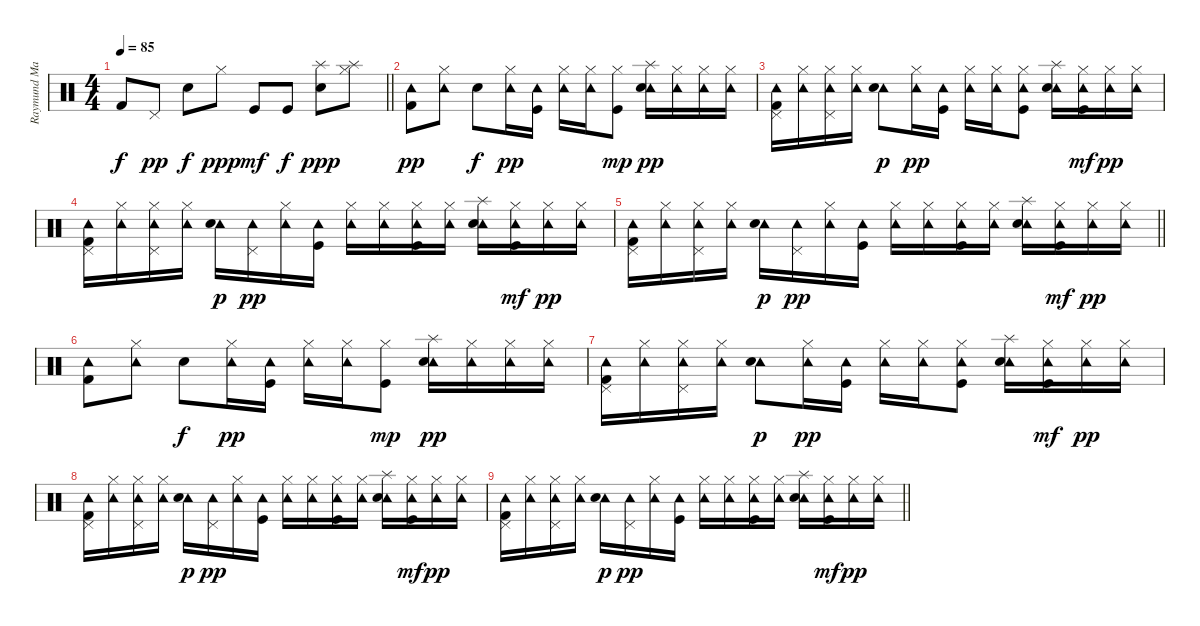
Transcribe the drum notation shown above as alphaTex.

\track ("Raymund Marasigan - Drums" "Raymund Ma") {instrument percussion}
\staff {score}
\articulation defaults
\ts (4 4)
\tempo 85
\clef neutral
\barLineRight lightlight
\ks c "Kick (hit) 2".8{dy f} "Pedal Hi-Hat (hit)".8{dy pp} "Electric Snare (hit)".8{dy f} "Hi-Hat (closed)".8{dy ppp} "Kick (hit)".8{dy mf} "Kick (hit)".8{dy f}
("Splash (hit)" "Electric Snare (hit)").8{dy ppp} ("Hi-Hat (closed)" "Splash (hit)").8 |
\section ("" "")
("Kick (hit) 2" "Tambourine (hit)").8{dy pp} ("Hi-Hat (closed)" "Tambourine (hit)").8 "Electric Snare (hit)".8{dy f} ("Hi-Hat (closed)" "Tambourine (hit)").16{dy pp} ("Kick (hit)" "Tambourine (hit)").16 ("Hi-Hat (closed)" "Tambourine (hit)").16 ("Hi-Hat (closed)" "Tambourine (hit)").16 ("Hi-Hat (closed)" "Kick (hit)").8{dy mp} ("Splash (hit)" "Tambourine (hit)" "Electric Snare (hit)").16{dy pp} ("Hi-Hat (closed)" "Tambourine (hit)").16 ("Hi-Hat (closed)" "Tambourine (hit)").16 ("Hi-Hat (closed)" "Tambourine (hit)").16 |
("Kick (hit) 2" "Pedal Hi-Hat (hit)" "Tambourine (hit)").16 ("Hi-Hat (closed)" "Tambourine (hit)").16 ("Hi-Hat (closed)" "Pedal Hi-Hat (hit)" "Tambourine (hit)").16 ("Hi-Hat (closed)" "Tambourine (hit)").16 ("Tambourine (hit)" "Electric Snare (hit)").8{dy p} ("Hi-Hat (closed)" "Tambourine (hit)").16{dy pp} ("Kick (hit)" "Tambourine (hit)").16 ("Hi-Hat (closed)" "Tambourine (hit)").16 ("Hi-Hat (closed)" "Tambourine (hit)").16 ("Hi-Hat (closed)" "Kick (hit)" "Tambourine (hit)").8 ("Splash (hit)" "Tambourine (hit)" "Electric Snare (hit)").16 ("Hi-Hat (closed)" "Tambourine (hit)" "Kick (hit)").16{dy mf} ("Hi-Hat (closed)" "Tambourine (hit)").16{dy pp} ("Hi-Hat (closed)" "Tambourine (hit)").16 |
("Kick (hit) 2" "Pedal Hi-Hat (hit)" "Tambourine (hit)").16 ("Hi-Hat (closed)" "Tambourine (hit)").16 ("Hi-Hat (closed)" "Pedal Hi-Hat (hit)" "Tambourine (hit)").16 ("Hi-Hat (closed)" "Tambourine (hit)").16 ("Tambourine (hit)" "Electric Snare (hit)").16{dy p} ("Pedal Hi-Hat (hit)" "Tambourine (hit)").16{dy pp} ("Hi-Hat (closed)" "Tambourine (hit)").16 ("Kick (hit)" "Tambourine (hit)").16 ("Hi-Hat (closed)" "Tambourine (hit)").16 ("Hi-Hat (closed)" "Tambourine (hit)").16 ("Hi-Hat (closed)" "Kick (hit)" "Tambourine (hit)").16 ("Hi-Hat (closed)" "Tambourine (hit)").16 ("Splash (hit)" "Tambourine (hit)" "Electric Snare (hit)").16 ("Hi-Hat (closed)" "Tambourine (hit)" "Kick (hit)").16{dy mf} ("Hi-Hat (closed)" "Tambourine (hit)").16{dy pp} ("Hi-Hat (closed)" "Tambourine (hit)").16 |
\barLineRight lightlight
("Kick (hit) 2" "Pedal Hi-Hat (hit)" "Tambourine (hit)").16 ("Hi-Hat (closed)" "Tambourine (hit)").16 ("Hi-Hat (closed)" "Pedal Hi-Hat (hit)" "Tambourine (hit)").16 ("Hi-Hat (closed)" "Tambourine (hit)").16 ("Tambourine (hit)" "Electric Snare (hit)").16{dy p} ("Pedal Hi-Hat (hit)" "Tambourine (hit)").16{dy pp} ("Hi-Hat (closed)" "Tambourine (hit)").16 ("Kick (hit)" "Tambourine (hit)").16 ("Hi-Hat (closed)" "Tambourine (hit)").16 ("Hi-Hat (closed)" "Tambourine (hit)").16 ("Hi-Hat (closed)" "Kick (hit)" "Tambourine (hit)").16 ("Hi-Hat (closed)" "Tambourine (hit)").16 ("Splash (hit)" "Tambourine (hit)" "Electric Snare (hit)").16 ("Hi-Hat (closed)" "Tambourine (hit)" "Kick (hit)").16{dy mf} ("Hi-Hat (closed)" "Tambourine (hit)").16{dy pp} ("Hi-Hat (closed)" "Tambourine (hit)").16 |
\section ("" "")
("Kick (hit) 2" "Tambourine (hit)").8 ("Hi-Hat (closed)" "Tambourine (hit)").8 "Electric Snare (hit)".8{dy f} ("Hi-Hat (closed)" "Tambourine (hit)").16{dy pp} ("Kick (hit)" "Tambourine (hit)").16 ("Hi-Hat (closed)" "Tambourine (hit)").16 ("Hi-Hat (closed)" "Tambourine (hit)").16 ("Hi-Hat (closed)" "Kick (hit)").8{dy mp} ("Splash (hit)" "Tambourine (hit)" "Electric Snare (hit)").16{dy pp} ("Hi-Hat (closed)" "Tambourine (hit)").16 ("Hi-Hat (closed)" "Tambourine (hit)").16 ("Hi-Hat (closed)" "Tambourine (hit)").16 |
("Kick (hit) 2" "Pedal Hi-Hat (hit)" "Tambourine (hit)").16 ("Hi-Hat (closed)" "Tambourine (hit)").16 ("Hi-Hat (closed)" "Pedal Hi-Hat (hit)" "Tambourine (hit)").16 ("Hi-Hat (closed)" "Tambourine (hit)").16 ("Tambourine (hit)" "Electric Snare (hit)").8{dy p} ("Hi-Hat (closed)" "Tambourine (hit)").16{dy pp} ("Kick (hit)" "Tambourine (hit)").16 ("Hi-Hat (closed)" "Tambourine (hit)").16 ("Hi-Hat (closed)" "Tambourine (hit)").16 ("Hi-Hat (closed)" "Kick (hit)" "Tambourine (hit)").8 ("Splash (hit)" "Tambourine (hit)" "Electric Snare (hit)").16 ("Hi-Hat (closed)" "Tambourine (hit)" "Kick (hit)").16{dy mf} ("Hi-Hat (closed)" "Tambourine (hit)").16{dy pp} ("Hi-Hat (closed)" "Tambourine (hit)").16 |
("Kick (hit) 2" "Pedal Hi-Hat (hit)" "Tambourine (hit)").16 ("Hi-Hat (closed)" "Tambourine (hit)").16 ("Hi-Hat (closed)" "Pedal Hi-Hat (hit)" "Tambourine (hit)").16 ("Hi-Hat (closed)" "Tambourine (hit)").16 ("Tambourine (hit)" "Electric Snare (hit)").16{dy p} ("Pedal Hi-Hat (hit)" "Tambourine (hit)").16{dy pp} ("Hi-Hat (closed)" "Tambourine (hit)").16 ("Kick (hit)" "Tambourine (hit)").16 ("Hi-Hat (closed)" "Tambourine (hit)").16 ("Hi-Hat (closed)" "Tambourine (hit)").16 ("Hi-Hat (closed)" "Kick (hit)" "Tambourine (hit)").16 ("Hi-Hat (closed)" "Tambourine (hit)").16 ("Splash (hit)" "Tambourine (hit)" "Electric Snare (hit)").16 ("Hi-Hat (closed)" "Tambourine (hit)" "Kick (hit)").16{dy mf} ("Hi-Hat (closed)" "Tambourine (hit)").16{dy pp} ("Hi-Hat (closed)" "Tambourine (hit)").16 |
\barLineRight lightlight
("Kick (hit) 2" "Pedal Hi-Hat (hit)" "Tambourine (hit)").16 ("Hi-Hat (closed)" "Tambourine (hit)").16 ("Hi-Hat (closed)" "Pedal Hi-Hat (hit)" "Tambourine (hit)").16 ("Hi-Hat (closed)" "Tambourine (hit)").16 ("Tambourine (hit)" "Electric Snare (hit)").16{dy p} ("Pedal Hi-Hat (hit)" "Tambourine (hit)").16{dy pp} ("Hi-Hat (closed)" "Tambourine (hit)").16 ("Kick (hit)" "Tambourine (hit)").16 ("Hi-Hat (closed)" "Tambourine (hit)").16 ("Hi-Hat (closed)" "Tambourine (hit)").16 ("Hi-Hat (closed)" "Kick (hit)" "Tambourine (hit)").16 ("Hi-Hat (closed)" "Tambourine (hit)").16 ("Splash (hit)" "Tambourine (hit)" "Electric Snare (hit)").16 ("Hi-Hat (closed)" "Tambourine (hit)" "Kick (hit)").16{dy mf} ("Hi-Hat (closed)" "Tambourine (hit)").16{dy pp} ("Hi-Hat (closed)" "Tambourine (hit)").16
